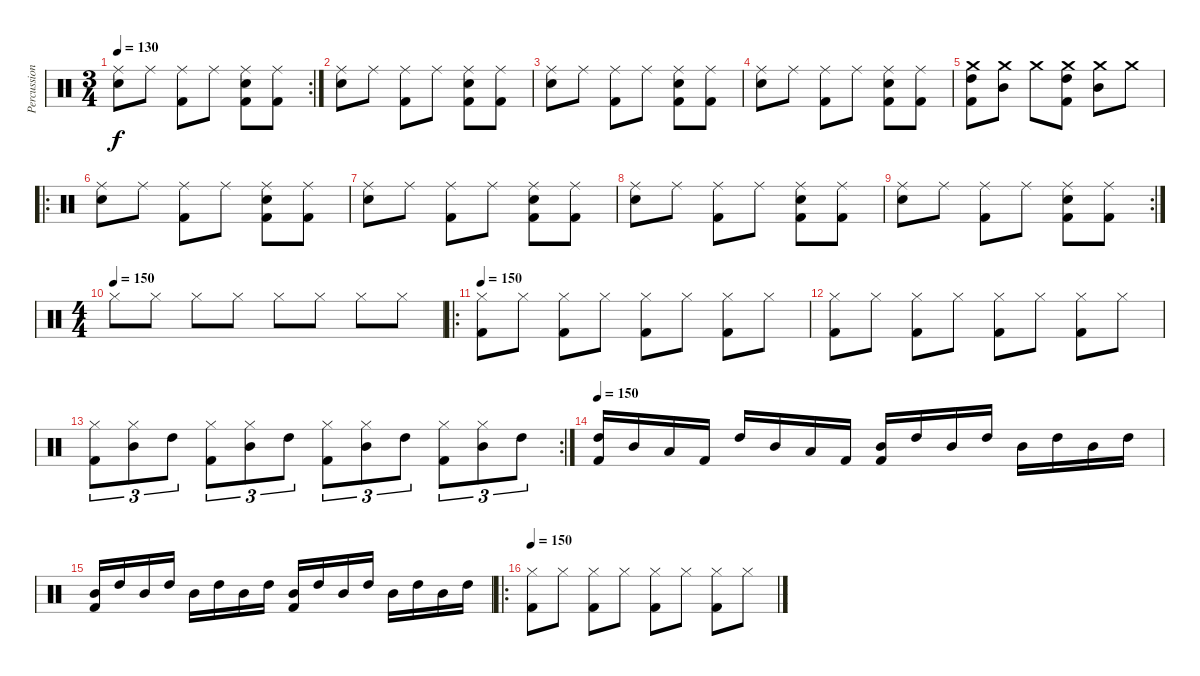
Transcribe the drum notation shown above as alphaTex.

\track ("Percussion" "Percussion") {instrument percussion}
\staff {score}
\articulation defaults
\rc 2
\ts (3 4)
\tempo 130
\clef neutral
\ks c
("Ride (middle)" "Snare (hit) 2").8{dy f} "Ride (middle)".8 ("Ride (middle)" "Kick (hit) 2").8 "Ride (middle)".8 ("Ride (middle)" "Snare (hit) 2" "Kick (hit) 2").8 ("Ride (middle)" "Kick (hit) 2").8 |
("Ride (middle)" "Snare (hit) 2").8 "Ride (middle)".8 ("Ride (middle)" "Kick (hit) 2").8 "Ride (middle)".8 ("Ride (middle)" "Snare (hit) 2" "Kick (hit) 2").8 ("Ride (middle)" "Kick (hit) 2").8 |
("Ride (middle)" "Snare (hit) 2").8 "Ride (middle)".8 ("Ride (middle)" "Kick (hit) 2").8 "Ride (middle)".8 ("Ride (middle)" "Snare (hit) 2" "Kick (hit) 2").8 ("Ride (middle)" "Kick (hit) 2").8 |
("Ride (middle)" "Snare (hit) 2").8 "Ride (middle)".8 ("Ride (middle)" "Kick (hit) 2").8 "Ride (middle)".8 ("Ride (middle)" "Snare (hit) 2" "Kick (hit) 2").8 ("Ride (middle)" "Kick (hit) 2").8 |
("High Tom (hit)" "Kick (hit) 2" "Crash medium (hit)").8 ("Mid Tom (hit)" "Crash medium (hit)").8 "Crash medium (hit)".8 ("High Tom (hit)" "Kick (hit) 2" "Crash medium (hit)").8 ("Mid Tom (hit)" "Crash medium (hit)").8 "Crash medium (hit)".8 |
\ro
("Ride (middle)" "Snare (hit) 2").8 "Ride (middle)".8 ("Ride (middle)" "Kick (hit) 2").8 "Ride (middle)".8 ("Ride (middle)" "Snare (hit) 2" "Kick (hit) 2").8 ("Ride (middle)" "Kick (hit) 2").8 |
("Ride (middle)" "Snare (hit) 2").8 "Ride (middle)".8 ("Ride (middle)" "Kick (hit) 2").8 "Ride (middle)".8 ("Ride (middle)" "Snare (hit) 2" "Kick (hit) 2").8 ("Ride (middle)" "Kick (hit) 2").8 |
("Ride (middle)" "Snare (hit) 2").8 "Ride (middle)".8 ("Ride (middle)" "Kick (hit) 2").8 "Ride (middle)".8 ("Ride (middle)" "Snare (hit) 2" "Kick (hit) 2").8 ("Ride (middle)" "Kick (hit) 2").8 |
\rc 2
("Ride (middle)" "Snare (hit) 2").8 "Ride (middle)".8 ("Ride (middle)" "Kick (hit) 2").8 "Ride (middle)".8 ("Ride (middle)" "Snare (hit) 2" "Kick (hit) 2").8 ("Ride (middle)" "Kick (hit) 2").8 |
\ts (4 4)
\tempo (150)
"Hi-Hat (closed)".8 "Hi-Hat (closed)".8 "Hi-Hat (closed)".8 "Hi-Hat (closed)".8 "Hi-Hat (closed)".8 "Hi-Hat (closed)".8 "Hi-Hat (closed)".8 "Hi-Hat (closed)".8 |
\ro
\tempo 150
("Hi-Hat (closed)" "Kick (hit) 2").8 "Hi-Hat (closed)".8 ("Hi-Hat (closed)" "Kick (hit) 2").8 "Hi-Hat (closed)".8 ("Hi-Hat (closed)" "Kick (hit) 2").8 "Hi-Hat (closed)".8 ("Hi-Hat (closed)" "Kick (hit) 2").8 "Hi-Hat (closed)".8 |
("Hi-Hat (closed)" "Kick (hit) 2").8 "Hi-Hat (closed)".8 ("Hi-Hat (closed)" "Kick (hit) 2").8 "Hi-Hat (closed)".8 ("Hi-Hat (closed)" "Kick (hit) 2").8 "Hi-Hat (closed)".8 ("Hi-Hat (closed)" "Kick (hit) 2").8 "Hi-Hat (closed)".8 |
\rc 2
("Hi-Hat (closed)" "Kick (hit) 2").8{tu (3 2)} ("Hi-Hat (closed)" "Mid Tom (hit)").8{tu (3 2)} "High Tom (hit)".8{tu (3 2)} ("Hi-Hat (closed)" "Kick (hit) 2").8{tu (3 2)} ("Hi-Hat (closed)" "Mid Tom (hit)").8{tu (3 2)} "High Tom (hit)".8{tu (3 2)} ("Hi-Hat (closed)" "Kick (hit) 2").8{tu (3 2)} ("Hi-Hat (closed)" "Mid Tom (hit)").8{tu (3 2)} "High Tom (hit)".8{tu (3 2)} ("Hi-Hat (closed)" "Kick (hit) 2").8{tu (3 2)} ("Hi-Hat (closed)" "Mid Tom (hit)").8{tu (3 2)} "High Tom (hit)".8{tu (3 2)} |
\tempo 150
("Kick (hit) 2" "High Tom (hit)").16 "Mid Tom (hit)".16 "Low Tom (hit)".16 "Kick (hit) 2".16 "High Tom (hit)".16 "Mid Tom (hit)".16 "Low Tom (hit)".16 "Kick (hit) 2".16 ("Kick (hit) 2" "Mid Tom (hit)").16 "High Tom (hit)".16 "Mid Tom (hit)".16 "High Tom (hit)".16 "Mid Tom (hit)".16 "High Tom (hit)".16 "Mid Tom (hit)".16 "High Tom (hit)".16 |
("Kick (hit) 2" "Mid Tom (hit)").16 "High Tom (hit)".16 "Mid Tom (hit)".16 "High Tom (hit)".16 "Mid Tom (hit)".16 "High Tom (hit)".16 "Mid Tom (hit)".16 "High Tom (hit)".16 ("Kick (hit) 2" "Mid Tom (hit)").16 "High Tom (hit)".16 "Mid Tom (hit)".16 "High Tom (hit)".16 "Mid Tom (hit)".16 "High Tom (hit)".16 "Mid Tom (hit)".16 "High Tom (hit)".16 |
\ro
\tempo 150
("Hi-Hat (closed)" "Kick (hit) 2").8 "Hi-Hat (closed)".8 ("Hi-Hat (closed)" "Kick (hit) 2").8 "Hi-Hat (closed)".8 ("Hi-Hat (closed)" "Kick (hit) 2").8 "Hi-Hat (closed)".8 ("Hi-Hat (closed)" "Kick (hit) 2").8 "Hi-Hat (closed)".8
